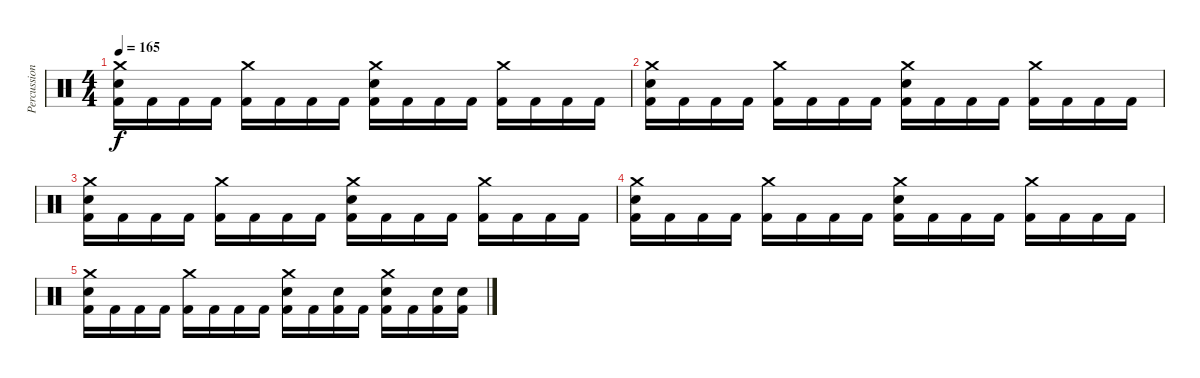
\track ("Percussions" "Percussion") {instrument percussion}
\staff {score}
\articulation defaults
\ts (4 4)
\tempo 165
\clef neutral
\ks c
("Crash medium (hit)" "Electric Snare (hit)" "Kick (hit) 2").16{dy f} "Kick (hit) 2".16 "Kick (hit) 2".16 "Kick (hit) 2".16 ("Crash medium (hit)" "Kick (hit) 2").16 "Kick (hit) 2".16 "Kick (hit) 2".16 "Kick (hit) 2".16 ("Crash medium (hit)" "Electric Snare (hit)" "Kick (hit) 2").16 "Kick (hit) 2".16 "Kick (hit) 2".16 "Kick (hit) 2".16 ("Crash medium (hit)" "Kick (hit) 2").16 "Kick (hit) 2".16 "Kick (hit) 2".16 "Kick (hit) 2".16 |
("Crash medium (hit)" "Electric Snare (hit)" "Kick (hit) 2").16 "Kick (hit) 2".16 "Kick (hit) 2".16 "Kick (hit) 2".16 ("Crash medium (hit)" "Kick (hit) 2").16 "Kick (hit) 2".16 "Kick (hit) 2".16 "Kick (hit) 2".16 ("Crash medium (hit)" "Electric Snare (hit)" "Kick (hit) 2").16 "Kick (hit) 2".16 "Kick (hit) 2".16 "Kick (hit) 2".16 ("Crash medium (hit)" "Kick (hit) 2").16 "Kick (hit) 2".16 "Kick (hit) 2".16 "Kick (hit) 2".16 |
("Crash medium (hit)" "Electric Snare (hit)" "Kick (hit) 2").16 "Kick (hit) 2".16 "Kick (hit) 2".16 "Kick (hit) 2".16 ("Crash medium (hit)" "Kick (hit) 2").16 "Kick (hit) 2".16 "Kick (hit) 2".16 "Kick (hit) 2".16 ("Crash medium (hit)" "Electric Snare (hit)" "Kick (hit) 2").16 "Kick (hit) 2".16 "Kick (hit) 2".16 "Kick (hit) 2".16 ("Crash medium (hit)" "Kick (hit) 2").16 "Kick (hit) 2".16 "Kick (hit) 2".16 "Kick (hit) 2".16 |
("Crash medium (hit)" "Electric Snare (hit)" "Kick (hit) 2").16 "Kick (hit) 2".16 "Kick (hit) 2".16 "Kick (hit) 2".16 ("Crash medium (hit)" "Kick (hit) 2").16 "Kick (hit) 2".16 "Kick (hit) 2".16 "Kick (hit) 2".16 ("Crash medium (hit)" "Electric Snare (hit)" "Kick (hit) 2").16 "Kick (hit) 2".16 "Kick (hit) 2".16 "Kick (hit) 2".16 ("Crash medium (hit)" "Kick (hit) 2").16 "Kick (hit) 2".16 "Kick (hit) 2".16 "Kick (hit) 2".16 |
("Crash medium (hit)" "Electric Snare (hit)" "Kick (hit) 2").16 "Kick (hit) 2".16 "Kick (hit) 2".16 "Kick (hit) 2".16 ("Crash medium (hit)" "Kick (hit) 2").16 "Kick (hit) 2".16 "Kick (hit) 2".16 "Kick (hit) 2".16 ("Crash medium (hit)" "Electric Snare (hit)" "Kick (hit) 2").16 "Kick (hit) 2".16 ("Electric Snare (hit)" "Kick (hit) 2").16 "Kick (hit) 2".16 ("Electric Snare (hit)" "Crash medium (hit)" "Kick (hit) 2").16 "Kick (hit) 2".16 ("Electric Snare (hit)" "Kick (hit) 2").16 ("Electric Snare (hit)" "Kick (hit) 2").16
